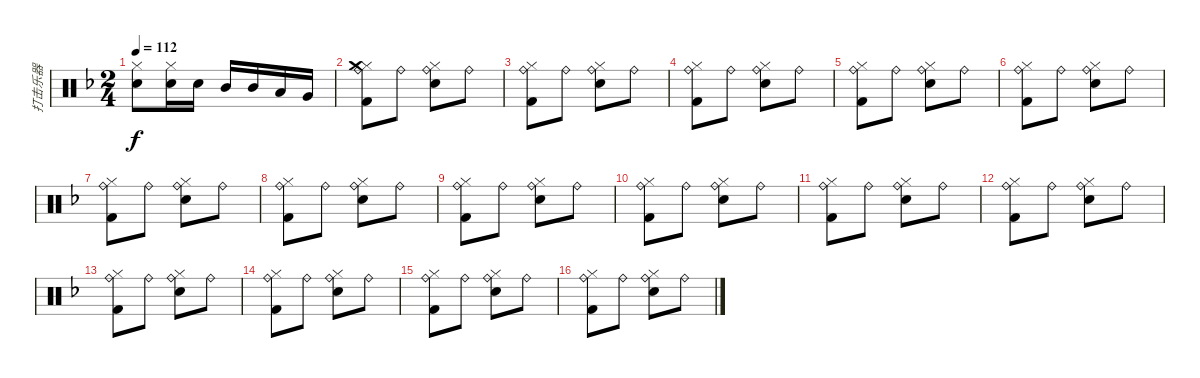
\track ("打击乐器" "打击乐器") {instrument percussion}
\staff {score}
\articulation defaults
\ts (2 4)
\tempo 112
\clef neutral
\ks f
("Hi-Hat (closed)" "Snare (hit) 2").8{dy f} ("Hi-Hat (closed)" "Snare (hit) 2").16 "Snare (hit) 2".16 "Mid Tom (hit)".16 "Mid Tom (hit)".16 "Low Tom (hit)".16 "Very Low Tom (hit)".16 |
("Hi-Hat (closed)" "Ride (bell)" "Crash medium (hit)" "Kick (hit) 2").8 "Ride (bell)".8 ("Hi-Hat (closed)" "Ride (bell)" "Snare (hit) 2").8 "Ride (bell)".8 |
("Hi-Hat (closed)" "Ride (bell)" "Kick (hit) 2").8 "Ride (bell)".8 ("Hi-Hat (closed)" "Ride (bell)" "Snare (hit) 2").8 "Ride (bell)".8 |
("Hi-Hat (closed)" "Ride (bell)" "Kick (hit) 2").8 "Ride (bell)".8 ("Hi-Hat (closed)" "Ride (bell)" "Snare (hit) 2").8 "Ride (bell)".8 |
("Hi-Hat (closed)" "Ride (bell)" "Kick (hit) 2").8 "Ride (bell)".8 ("Hi-Hat (closed)" "Ride (bell)" "Snare (hit) 2").8 "Ride (bell)".8 |
("Hi-Hat (closed)" "Ride (bell)" "Kick (hit) 2").8 "Ride (bell)".8 ("Hi-Hat (closed)" "Ride (bell)" "Snare (hit) 2").8 "Ride (bell)".8 |
("Hi-Hat (closed)" "Ride (bell)" "Kick (hit) 2").8 "Ride (bell)".8 ("Hi-Hat (closed)" "Ride (bell)" "Snare (hit) 2").8 "Ride (bell)".8 |
("Hi-Hat (closed)" "Ride (bell)" "Kick (hit) 2").8 "Ride (bell)".8 ("Hi-Hat (closed)" "Ride (bell)" "Snare (hit) 2").8 "Ride (bell)".8 |
("Hi-Hat (closed)" "Ride (bell)" "Kick (hit) 2").8 "Ride (bell)".8 ("Hi-Hat (closed)" "Ride (bell)" "Snare (hit) 2").8 "Ride (bell)".8 |
("Hi-Hat (closed)" "Ride (bell)" "Kick (hit) 2").8 "Ride (bell)".8 ("Hi-Hat (closed)" "Ride (bell)" "Snare (hit) 2").8 "Ride (bell)".8 |
("Hi-Hat (closed)" "Ride (bell)" "Kick (hit) 2").8 "Ride (bell)".8 ("Hi-Hat (closed)" "Ride (bell)" "Snare (hit) 2").8 "Ride (bell)".8 |
("Hi-Hat (closed)" "Ride (bell)" "Kick (hit) 2").8 "Ride (bell)".8 ("Hi-Hat (closed)" "Ride (bell)" "Snare (hit) 2").8 "Ride (bell)".8 |
("Hi-Hat (closed)" "Ride (bell)" "Kick (hit) 2").8 "Ride (bell)".8 ("Hi-Hat (closed)" "Ride (bell)" "Snare (hit) 2").8 "Ride (bell)".8 |
("Hi-Hat (closed)" "Ride (bell)" "Kick (hit) 2").8 "Ride (bell)".8 ("Hi-Hat (closed)" "Ride (bell)" "Snare (hit) 2").8 "Ride (bell)".8 |
("Hi-Hat (closed)" "Ride (bell)" "Kick (hit) 2").8 "Ride (bell)".8 ("Hi-Hat (closed)" "Ride (bell)" "Snare (hit) 2").8 "Ride (bell)".8 |
("Hi-Hat (closed)" "Ride (bell)" "Kick (hit) 2").8 "Ride (bell)".8 ("Hi-Hat (closed)" "Ride (bell)" "Snare (hit) 2").8 "Ride (bell)".8
